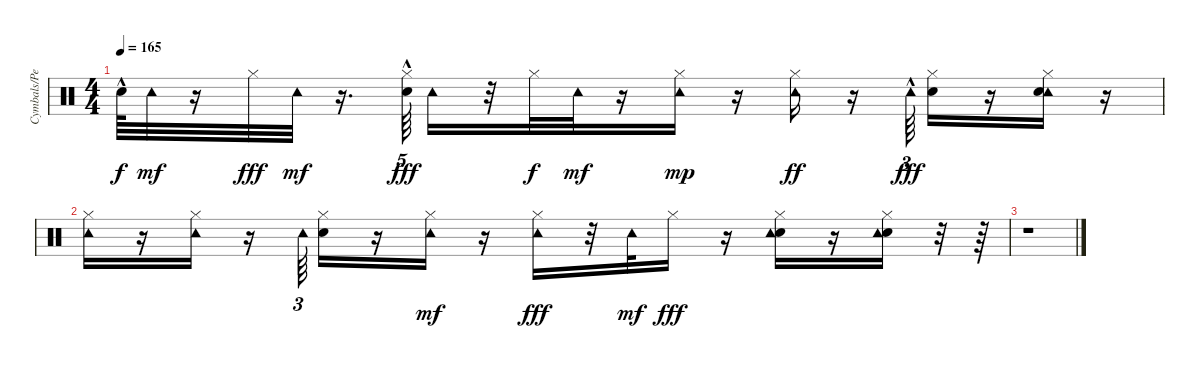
\track ("Cymbals/Percussion" "Cymbals/Pe") {instrument percussion}
\staff {score}
\articulation defaults
\ts (4 4)
\tempo 165
\clef neutral
\ks c "Snare (hit)"{hac t}.64{dy f} "Tambourine (hit)".32{dy mf}
r.16 "Hi-Hat (closed)".32{dy fff} "Tambourine (hit)".32{dy mf} r.16{d} ("Hi-Hat (closed)"{hac} "Hand Clap (hit)").64{tu (5 4) dy fff} "Tambourine (hit)".16 r.32 "Hi-Hat (closed)".32{dy f} "Tambourine (hit)".32{dy mf} r.16 ("Hi-Hat (closed)" "Tambourine (hit)").16{dy mp} r.16 ("Tambourine (hit)" "Hi-Hat (closed)").16{dy ff} r.16 "Tambourine (hit)"{hac}.64{tu (3 2) dy fff} ("Hi-Hat (closed)" "Hand Clap (hit)").16 r.16 ("Tambourine (hit)" "Hand Clap (hit)" "Hi-Hat (closed)").16 r.16 |
("Tambourine (hit)" "Hi-Hat (closed)").16 r.16 ("Tambourine (hit)" "Hi-Hat (closed)").16 r.16 "Tambourine (hit)".64{tu (3 2)} ("Hand Clap (hit)" "Hi-Hat (closed)").16 r.16 ("Tambourine (hit)" "Hi-Hat (closed)").16{dy mf} r.16 ("Tambourine (hit)" "Hi-Hat (closed)").16{dy fff} r.32 "Tambourine (hit)".32{dy mf} "Hi-Hat (closed)".16{dy fff} r.16 ("Hand Clap (hit)" "Hi-Hat (closed)" "Tambourine (hit)").16 r.16 ("Hi-Hat (closed)" "Hand Clap (hit)" "Tambourine (hit)").16 r.32 r.64 |
r.1
